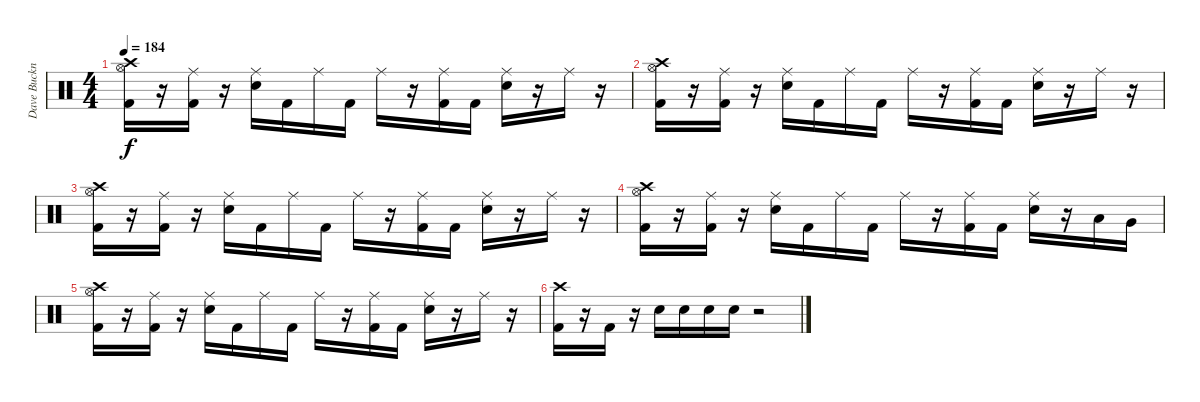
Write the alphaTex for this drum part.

\track ("Dave Buckner" "Dave Buckn") {instrument percussion}
\staff {score}
\articulation defaults
\ts (4 4)
\tempo 184
\clef neutral
\ks c
("Crash high (hit)" "Hi-Hat (open)" "Kick (hit) 2").16{dy f} r.16 ("Ride (middle)" "Kick (hit) 2").16 r.16 ("Ride (middle)" "Snare (hit) 2").16 "Kick (hit) 2".16 "Ride (middle)".16 "Kick (hit) 2".16 "Ride (middle)".16 r.16 ("Ride (middle)" "Kick (hit) 2").16 "Kick (hit) 2".16 ("Ride (middle)" "Snare (hit) 2").16 r.16 "Ride (middle)".16 r.16 |
("Crash high (hit)" "Hi-Hat (open)" "Kick (hit) 2").16 r.16 ("Ride (middle)" "Kick (hit) 2").16 r.16 ("Ride (middle)" "Snare (hit) 2").16 "Kick (hit) 2".16 "Ride (middle)".16 "Kick (hit) 2".16 "Ride (middle)".16 r.16 ("Ride (middle)" "Kick (hit) 2").16 "Kick (hit) 2".16 ("Ride (middle)" "Snare (hit) 2").16 r.16 "Ride (middle)".16 r.16 |
("Crash high (hit)" "Hi-Hat (open)" "Kick (hit) 2").16 r.16 ("Ride (middle)" "Kick (hit) 2").16 r.16 ("Ride (middle)" "Snare (hit) 2").16 "Kick (hit) 2".16 "Ride (middle)".16 "Kick (hit) 2".16 "Ride (middle)".16 r.16 ("Ride (middle)" "Kick (hit) 2").16 "Kick (hit) 2".16 ("Ride (middle)" "Snare (hit) 2").16 r.16 "Ride (middle)".16 r.16 |
("Crash high (hit)" "Hi-Hat (open)" "Kick (hit) 2").16 r.16 ("Ride (middle)" "Kick (hit) 2").16 r.16 ("Ride (middle)" "Snare (hit) 2").16 "Kick (hit) 2".16 "Ride (middle)".16 "Kick (hit) 2".16 "Ride (middle)".16 r.16 ("Ride (middle)" "Kick (hit) 2").16 "Kick (hit) 2".16 ("Ride (middle)" "Snare (hit) 2").16 r.16 "Low Tom (hit)".16 "Very Low Tom (hit)".16 |
("Crash high (hit)" "Hi-Hat (open)" "Kick (hit) 2").16 r.16 ("Ride (middle)" "Kick (hit) 2").16 r.16 ("Ride (middle)" "Snare (hit) 2").16 "Kick (hit) 2".16 "Ride (middle)".16 "Kick (hit) 2".16 "Ride (middle)".16 r.16 ("Ride (middle)" "Kick (hit) 2").16 "Kick (hit) 2".16 ("Ride (middle)" "Snare (hit) 2").16 r.16 "Ride (middle)".16 r.16 |
("Crash high (hit)" "Kick (hit) 2").16 r.16 "Kick (hit) 2".16 r.16 "Snare (hit) 2".16 "Snare (hit) 2".16 "Snare (hit) 2".16 "Snare (hit) 2".16 r.2
